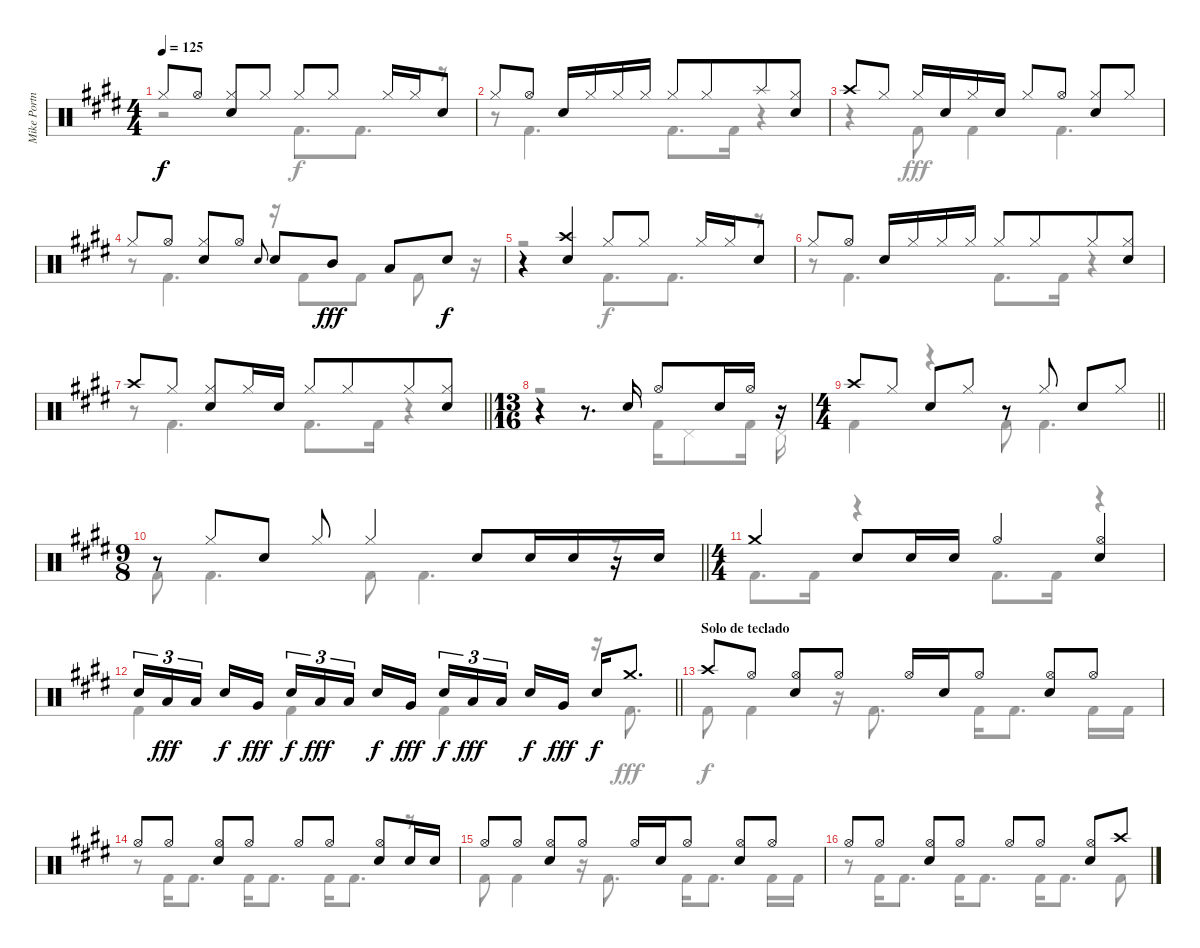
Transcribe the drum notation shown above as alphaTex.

\track ("Mike Portnoy" "Mike Portn") {instrument percussion}
\staff {score}
\articulation defaults
\voice
\ts (4 4)
\tempo 125
\clef neutral
\ks e "Hi-Hat (closed)".8{dy f} "Hi-Hat (open)".8
("Hi-Hat (closed)" "Snare (hit) 2").8 "Hi-Hat (closed)".8 "Hi-Hat (closed)".8 "Hi-Hat (closed)".8 "Hi-Hat (closed)".16 "Hi-Hat (closed)".16 "Snare (hit) 2".8 |
"Hi-Hat (closed)".8 "Hi-Hat (open)".8 "Snare (hit) 2".16 "Hi-Hat (closed)".16 "Hi-Hat (closed)".16 "Hi-Hat (closed)".16 "Hi-Hat (closed)".8 "Hi-Hat (closed)".8{beam merge} "Splash (hit)".8 ("Hi-Hat (closed)" "Snare (hit) 2").8 |
"Crash high (hit)".8 "Hi-Hat (closed)".8 "Hi-Hat (closed)".16 "Snare (hit) 2".16 "Hi-Hat (closed)".16 "Snare (hit) 2".16 "Hi-Hat (closed)".8 "Hi-Hat (open)".8 ("Hi-Hat (closed)" "Snare (hit) 2").8 "Hi-Hat (closed)".8 |
"Hi-Hat (closed)".8 "Hi-Hat (open)".8 ("Hi-Hat (closed)" "Snare (hit) 2").8 "Hi-Hat (open)".8 "Snare (hit) 2".8{gr onbeat} "Snare (hit) 2".8 "Mid Tom (hit)".8{dy fff volume 16} "Low Tom (hit)".8 "Snare (hit) 2".8{dy f volume 13} |
r.4 ("Crash high (hit)" "Snare (hit) 2").4 "Hi-Hat (closed)".8 "Hi-Hat (closed)".8 "Hi-Hat (closed)".16 "Hi-Hat (closed)".16 "Snare (hit) 2".8 |
"Hi-Hat (closed)".8 "Hi-Hat (open)".8 "Snare (hit) 2".16 "Hi-Hat (closed)".16 "Hi-Hat (closed)".16 "Hi-Hat (closed)".16 "Hi-Hat (closed)".8 "Hi-Hat (closed)".8{beam merge} "Hi-Hat (closed)".8 ("Hi-Hat (closed)" "Snare (hit) 2").8 |
\barLineRight lightlight "Crash high (hit)".8 "Hi-Hat (closed)".8
("Hi-Hat (closed)" "Snare (hit) 2").8 "Hi-Hat (closed)".16 "Snare (hit) 2".16 "Hi-Hat (closed)".8 "Hi-Hat (closed)".8{beam merge} "Hi-Hat (closed)".8 ("Hi-Hat (closed)" "Snare (hit) 2").8 |
\ts (13 16)
r.4 r.8{d} "Snare (hit) 2".16 "Hi-Hat (open)".8{beam merge} "Snare (hit) 2".16{beam merge} "Hi-Hat (open)".16 r.16 |
\ts (4 4)
\barLineRight lightlight "Crash high (hit)".8 "Hi-Hat (closed)".8 "Snare (hit) 2".8 "Hi-Hat (closed)".8
r.8 "Hi-Hat (closed)".8 "Snare (hit) 2".8 "Hi-Hat (closed)".8 |
\ts (9 8)
\barLineRight lightlight
r.8 "Hi-Hat (closed)".8 "Snare (hit) 2".8 "Hi-Hat (closed)".8 "Hi-Hat (closed)".4 "Snare (hit) 2".8 "Snare (hit) 2".16 "Snare (hit) 2".16 r.16 "Snare (hit) 2".16 |
\ts (4 4)
"Crash medium (hit)".4 "Snare (hit) 2".8 "Snare (hit) 2".16 "Snare (hit) 2".16 "Hi-Hat (open)".4 ("Hi-Hat (open)" "Snare (hit) 2").4 |
\barLineRight lightlight "Snare (hit) 2".16{tu (3 2) volume 16} "Low Tom (hit)".16{tu (3 2) dy fff} "Low Tom (hit)".16{tu (3 2) beam splitsecondary} "Snare (hit) 2".16{dy f} "Very Low Tom (hit)".16{dy fff} "Snare (hit) 2".16{tu (3 2) dy f} "Low Tom (hit)".16{tu (3 2) dy fff} "Low Tom (hit)".16{tu (3 2) beam splitsecondary} "Snare (hit) 2".16{dy f} "Very Low Tom (hit)".16{dy fff} "Snare (hit) 2".16{tu (3 2) dy f} "Low Tom (hit)".16{tu (3 2) dy fff} "Low Tom (hit)".16{tu (3 2) beam splitsecondary} "Snare (hit) 2".16{dy f} "Very Low Tom (hit)".16{dy fff} "Snare (hit) 2".16{dy f} "Crash medium (hit)".8{d volume 13}
|
\section ("" "Solo de teclado")
"Crash high (hit)".8 "Hi-Hat (open)".8 ("Hi-Hat (open)" "Snare (hit) 2").8 "Hi-Hat (open)".8 "Hi-Hat (open)".16 "Snare (hit) 2".16 "Hi-Hat (open)".8 ("Hi-Hat (open)" "Snare (hit) 2").8 "Hi-Hat (open)".8 |
"Hi-Hat (open)".8 "Hi-Hat (open)".8 ("Hi-Hat (open)" "Snare (hit) 2").8 "Hi-Hat (open)".8 "Hi-Hat (open)".8 "Hi-Hat (open)".8 ("Hi-Hat (open)" "Snare (hit) 2").8 "Snare (hit) 2".16 "Snare (hit) 2".16 |
"Hi-Hat (open)".8 "Hi-Hat (open)".8 ("Hi-Hat (open)" "Snare (hit) 2").8 "Hi-Hat (open)".8 "Hi-Hat (open)".16 "Snare (hit) 2".16 "Hi-Hat (open)".8 ("Hi-Hat (open)" "Snare (hit) 2").8 "Hi-Hat (open)".8 |
"Hi-Hat (open)".8 "Hi-Hat (open)".8 ("Hi-Hat (open)" "Snare (hit) 2").8 "Hi-Hat (open)".8 "Hi-Hat (open)".8 "Hi-Hat (open)".8 ("Hi-Hat (open)" "Snare (hit) 2").8 "Crash high (hit)".8
\voice
\clef neutral
\ottava regular
\simile none
\ks e
r.2{dy f} "Kick (hit) 2".8{d} "Kick (hit) 2".8{d} r.8 |
r.8 "Kick (hit) 2".4{d} "Kick (hit) 2".8{d} "Kick (hit) 2".16 r.4 |
r.4 "Kick (hit) 2".8{dy fff} "Kick (hit) 2".4 "Kick (hit) 2".4{d} |
r.8 "Kick (hit) 2".4{d} r.16 "Kick (hit) 2".8 "Kick (hit) 2".8 "Kick (hit) 2".8 r.16 |
r.2 "Kick (hit) 2".8{d dy f} "Kick (hit) 2".8{d} r.8 |
r.8 "Kick (hit) 2".4{d} "Kick (hit) 2".8{d} "Kick (hit) 2".16 r.4 |
\barLineRight lightlight
r.8 "Kick (hit) 2".4{d} "Kick (hit) 2".8{d} "Kick (hit) 2".16 r.4 |
r.2 "Kick (hit) 2".16 "Pedal Hi-Hat (hit)".8 "Kick (hit) 2".16 "Pedal Hi-Hat (hit)".16 |
\barLineRight lightlight "Kick (hit) 2".4
r.4 "Kick (hit) 2".8 "Kick (hit) 2".4{d} |
\barLineRight lightlight "Kick (hit) 2".8 "Kick (hit) 2".4{d} "Kick (hit) 2".8 "Kick (hit) 2".4{d}
r.8 |
"Kick (hit) 2".8{d} "Kick (hit) 2".16 r.4 "Kick (hit) 2".8{d} "Kick (hit) 2".16 r.4 |
\barLineRight lightlight "Kick (hit) 2".4 "Kick (hit) 2".4 "Kick (hit) 2".4
r.16 "Kick (hit) 2".8{d dy fff} |
"Kick (hit) 2".8{dy f} "Kick (hit) 2".4 r.16 "Kick (hit) 2".8{d} "Kick (hit) 2".16 "Kick (hit) 2".8{d} "Kick (hit) 2".16 "Kick (hit) 2".16 |
r.8 "Kick (hit) 2".16 "Kick (hit) 2".8{d} "Kick (hit) 2".16 "Kick (hit) 2".8{d} "Kick (hit) 2".16 "Kick (hit) 2".8{d} r.8 |
"Kick (hit) 2".8 "Kick (hit) 2".4 r.16 "Kick (hit) 2".8{d} "Kick (hit) 2".16 "Kick (hit) 2".8{d} "Kick (hit) 2".16 "Kick (hit) 2".16 |
r.8 "Kick (hit) 2".16 "Kick (hit) 2".8{d} "Kick (hit) 2".16 "Kick (hit) 2".8{d} "Kick (hit) 2".16 "Kick (hit) 2".8{d} "Kick (hit) 2".8
